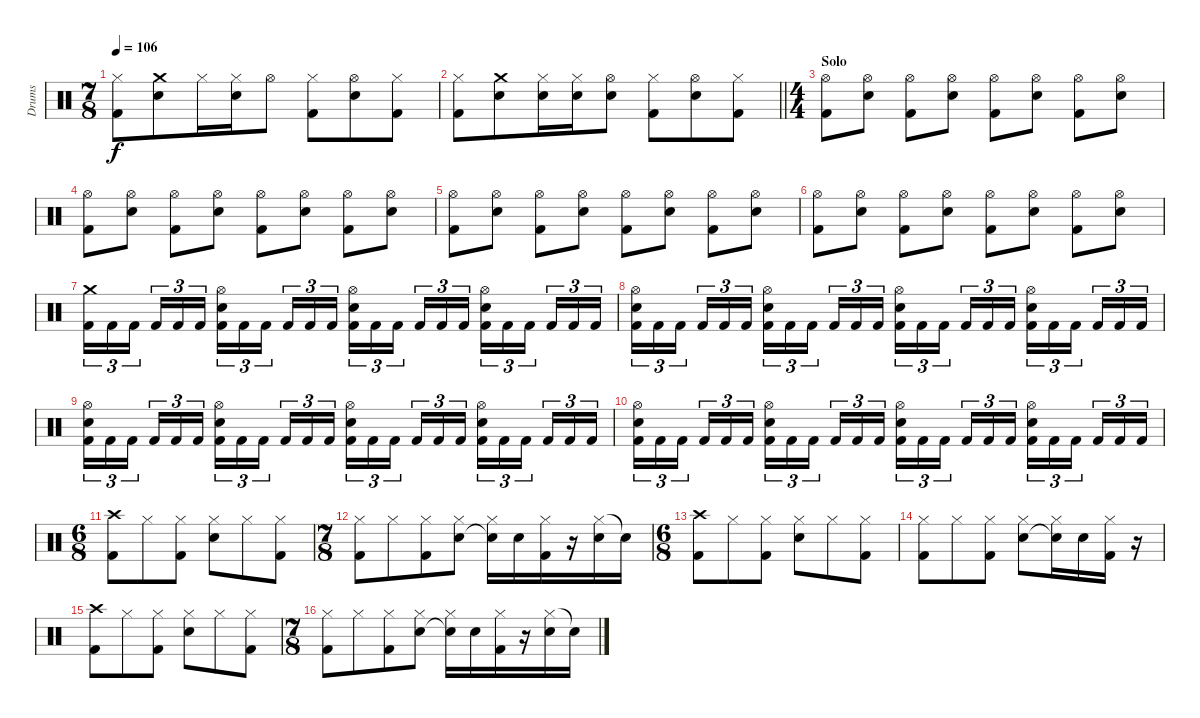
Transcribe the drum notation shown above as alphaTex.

\track ("Drums" "Drums") {instrument percussion}
\staff {score}
\articulation defaults
\ts (7 8)
\tempo 106
\clef neutral
\ks aminor
("Hi-Hat (closed)" "Kick (hit) 2").8{dy f} ("Crash medium (hit)" "Electric Snare (hit)").8 "Hi-Hat (closed)".16 ("Hi-Hat (closed)" "Electric Snare (hit)").16 "Hi-Hat (open)".8 ("Hi-Hat (closed)" "Kick (hit) 2").8 ("Hi-Hat (open)" "Electric Snare (hit)").8 ("Hi-Hat (closed)" "Kick (hit) 2").8 |
\barLineRight lightlight
("Hi-Hat (closed)" "Kick (hit) 2").8 ("Crash medium (hit)" "Electric Snare (hit)").8 ("Hi-Hat (closed)" "Electric Snare (hit)").16 ("Hi-Hat (closed)" "Electric Snare (hit)").16 ("Hi-Hat (open)" "Electric Snare (hit)").8 ("Hi-Hat (closed)" "Kick (hit) 2").8 ("Hi-Hat (open)" "Electric Snare (hit)").8 ("Hi-Hat (closed)" "Kick (hit) 2").8 |
\ts (4 4)
\section ("" "Solo")
("Hi-Hat (open)" "Kick (hit) 2").8 ("Hi-Hat (open)" "Electric Snare (hit)").8 ("Hi-Hat (open)" "Kick (hit) 2").8 ("Hi-Hat (open)" "Electric Snare (hit)").8 ("Hi-Hat (open)" "Kick (hit) 2").8 ("Hi-Hat (open)" "Electric Snare (hit)").8 ("Hi-Hat (open)" "Kick (hit) 2").8 ("Hi-Hat (open)" "Electric Snare (hit)").8 |
("Hi-Hat (open)" "Kick (hit) 2").8 ("Hi-Hat (open)" "Electric Snare (hit)").8 ("Hi-Hat (open)" "Kick (hit) 2").8 ("Hi-Hat (open)" "Electric Snare (hit)").8 ("Hi-Hat (open)" "Kick (hit) 2").8 ("Hi-Hat (open)" "Electric Snare (hit)").8 ("Hi-Hat (open)" "Kick (hit) 2").8 ("Hi-Hat (open)" "Electric Snare (hit)").8 |
("Hi-Hat (open)" "Kick (hit) 2").8 ("Hi-Hat (open)" "Electric Snare (hit)").8 ("Hi-Hat (open)" "Kick (hit) 2").8 ("Hi-Hat (open)" "Electric Snare (hit)").8 ("Hi-Hat (open)" "Kick (hit) 2").8 ("Hi-Hat (open)" "Electric Snare (hit)").8 ("Hi-Hat (open)" "Kick (hit) 2").8 ("Hi-Hat (open)" "Electric Snare (hit)").8 |
("Hi-Hat (open)" "Kick (hit) 2").8 ("Hi-Hat (open)" "Electric Snare (hit)").8 ("Hi-Hat (open)" "Kick (hit) 2").8 ("Hi-Hat (open)" "Electric Snare (hit)").8 ("Hi-Hat (open)" "Kick (hit) 2").8 ("Hi-Hat (open)" "Electric Snare (hit)").8 ("Hi-Hat (open)" "Kick (hit) 2").8 ("Hi-Hat (open)" "Electric Snare (hit)").8 |
("Crash medium (hit)" "Kick (hit) 2").16{tu (3 2)} "Kick (hit) 2".16{tu (3 2)} "Kick (hit) 2".16{tu (3 2)} "Kick (hit) 2".16{tu (3 2)} "Kick (hit) 2".16{tu (3 2)} "Kick (hit) 2".16{tu (3 2)} ("Hi-Hat (open)" "Electric Snare (hit)" "Kick (hit) 2").16{tu (3 2)} "Kick (hit) 2".16{tu (3 2)} "Kick (hit) 2".16{tu (3 2)} "Kick (hit) 2".16{tu (3 2)} "Kick (hit) 2".16{tu (3 2)} "Kick (hit) 2".16{tu (3 2)} ("Hi-Hat (open)" "Electric Snare (hit)" "Kick (hit) 2").16{tu (3 2)} "Kick (hit) 2".16{tu (3 2)} "Kick (hit) 2".16{tu (3 2)} "Kick (hit) 2".16{tu (3 2)} "Kick (hit) 2".16{tu (3 2)} "Kick (hit) 2".16{tu (3 2)} ("Hi-Hat (open)" "Electric Snare (hit)" "Kick (hit) 2").16{tu (3 2)} "Kick (hit) 2".16{tu (3 2)} "Kick (hit) 2".16{tu (3 2)} "Kick (hit) 2".16{tu (3 2)} "Kick (hit) 2".16{tu (3 2)} "Kick (hit) 2".16{tu (3 2)} |
("Hi-Hat (open)" "Electric Snare (hit)" "Kick (hit) 2").16{tu (3 2)} "Kick (hit) 2".16{tu (3 2)} "Kick (hit) 2".16{tu (3 2)} "Kick (hit) 2".16{tu (3 2)} "Kick (hit) 2".16{tu (3 2)} "Kick (hit) 2".16{tu (3 2)} ("Hi-Hat (open)" "Electric Snare (hit)" "Kick (hit) 2").16{tu (3 2)} "Kick (hit) 2".16{tu (3 2)} "Kick (hit) 2".16{tu (3 2)} "Kick (hit) 2".16{tu (3 2)} "Kick (hit) 2".16{tu (3 2)} "Kick (hit) 2".16{tu (3 2)} ("Hi-Hat (open)" "Electric Snare (hit)" "Kick (hit) 2").16{tu (3 2)} "Kick (hit) 2".16{tu (3 2)} "Kick (hit) 2".16{tu (3 2)} "Kick (hit) 2".16{tu (3 2)} "Kick (hit) 2".16{tu (3 2)} "Kick (hit) 2".16{tu (3 2)} ("Hi-Hat (open)" "Electric Snare (hit)" "Kick (hit) 2").16{tu (3 2)} "Kick (hit) 2".16{tu (3 2)} "Kick (hit) 2".16{tu (3 2)} "Kick (hit) 2".16{tu (3 2)} "Kick (hit) 2".16{tu (3 2)} "Kick (hit) 2".16{tu (3 2)} |
("Hi-Hat (open)" "Electric Snare (hit)" "Kick (hit) 2").16{tu (3 2)} "Kick (hit) 2".16{tu (3 2)} "Kick (hit) 2".16{tu (3 2)} "Kick (hit) 2".16{tu (3 2)} "Kick (hit) 2".16{tu (3 2)} "Kick (hit) 2".16{tu (3 2)} ("Hi-Hat (open)" "Electric Snare (hit)" "Kick (hit) 2").16{tu (3 2)} "Kick (hit) 2".16{tu (3 2)} "Kick (hit) 2".16{tu (3 2)} "Kick (hit) 2".16{tu (3 2)} "Kick (hit) 2".16{tu (3 2)} "Kick (hit) 2".16{tu (3 2)} ("Hi-Hat (open)" "Electric Snare (hit)" "Kick (hit) 2").16{tu (3 2)} "Kick (hit) 2".16{tu (3 2)} "Kick (hit) 2".16{tu (3 2)} "Kick (hit) 2".16{tu (3 2)} "Kick (hit) 2".16{tu (3 2)} "Kick (hit) 2".16{tu (3 2)} ("Hi-Hat (open)" "Electric Snare (hit)" "Kick (hit) 2").16{tu (3 2)} "Kick (hit) 2".16{tu (3 2)} "Kick (hit) 2".16{tu (3 2)} "Kick (hit) 2".16{tu (3 2)} "Kick (hit) 2".16{tu (3 2)} "Kick (hit) 2".16{tu (3 2)} |
("Hi-Hat (open)" "Electric Snare (hit)" "Kick (hit) 2").16{tu (3 2)} "Kick (hit) 2".16{tu (3 2)} "Kick (hit) 2".16{tu (3 2)} "Kick (hit) 2".16{tu (3 2)} "Kick (hit) 2".16{tu (3 2)} "Kick (hit) 2".16{tu (3 2)} ("Hi-Hat (open)" "Electric Snare (hit)" "Kick (hit) 2").16{tu (3 2)} "Kick (hit) 2".16{tu (3 2)} "Kick (hit) 2".16{tu (3 2)} "Kick (hit) 2".16{tu (3 2)} "Kick (hit) 2".16{tu (3 2)} "Kick (hit) 2".16{tu (3 2)} ("Hi-Hat (open)" "Electric Snare (hit)" "Kick (hit) 2").16{tu (3 2)} "Kick (hit) 2".16{tu (3 2)} "Kick (hit) 2".16{tu (3 2)} "Kick (hit) 2".16{tu (3 2)} "Kick (hit) 2".16{tu (3 2)} "Kick (hit) 2".16{tu (3 2)} ("Hi-Hat (open)" "Electric Snare (hit)" "Kick (hit) 2").16{tu (3 2)} "Kick (hit) 2".16{tu (3 2)} "Kick (hit) 2".16{tu (3 2)} "Kick (hit) 2".16{tu (3 2)} "Kick (hit) 2".16{tu (3 2)} "Kick (hit) 2".16{tu (3 2)} |
\ts (6 8)
\section ("" "")
("Crash high (hit)" "Kick (hit) 2").8 "Hi-Hat (closed)".8 ("Hi-Hat (closed)" "Kick (hit) 2").8 ("Hi-Hat (closed)" "Electric Snare (hit)").8 "Hi-Hat (closed)".8 ("Hi-Hat (closed)" "Kick (hit) 2").8 |
\ts (7 8)
("Hi-Hat (closed)" "Kick (hit) 2").8 "Hi-Hat (closed)".8 ("Hi-Hat (closed)" "Kick (hit) 2").8 ("Hi-Hat (closed)" "Electric Snare (hit)").8 ("Hi-Hat (closed)" "Snare (hit)"{t}).16 "Electric Snare (hit)".16 ("Hi-Hat (closed)" "Kick (hit) 2").16 r.16 ("Hi-Hat (closed)" "Electric Snare (hit)").16 "Snare (hit)"{t}.16 |
\ts (6 8)
("Crash high (hit)" "Kick (hit) 2").8 "Hi-Hat (closed)".8 ("Hi-Hat (closed)" "Kick (hit) 2").8 ("Hi-Hat (closed)" "Electric Snare (hit)").8 "Hi-Hat (closed)".8 ("Hi-Hat (closed)" "Kick (hit) 2").8 |
("Hi-Hat (closed)" "Kick (hit) 2").8 "Hi-Hat (closed)".8 ("Hi-Hat (closed)" "Kick (hit) 2").8 ("Hi-Hat (closed)" "Electric Snare (hit)").8 ("Hi-Hat (closed)" "Snare (hit)"{t}).16 "Electric Snare (hit)".16 ("Hi-Hat (closed)" "Kick (hit) 2").16 r.16 |
("Crash high (hit)" "Kick (hit) 2").8 "Hi-Hat (closed)".8 ("Hi-Hat (closed)" "Kick (hit) 2").8 ("Hi-Hat (closed)" "Electric Snare (hit)").8 "Hi-Hat (closed)".8 ("Hi-Hat (closed)" "Kick (hit) 2").8 |
\ts (7 8)
("Hi-Hat (closed)" "Kick (hit) 2").8 "Hi-Hat (closed)".8 ("Hi-Hat (closed)" "Kick (hit) 2").8 ("Hi-Hat (closed)" "Electric Snare (hit)").8 ("Hi-Hat (closed)" "Snare (hit)"{t}).16 "Electric Snare (hit)".16 ("Hi-Hat (closed)" "Kick (hit) 2").16 r.16 ("Hi-Hat (closed)" "Electric Snare (hit)").16 "Snare (hit)"{t}.16
